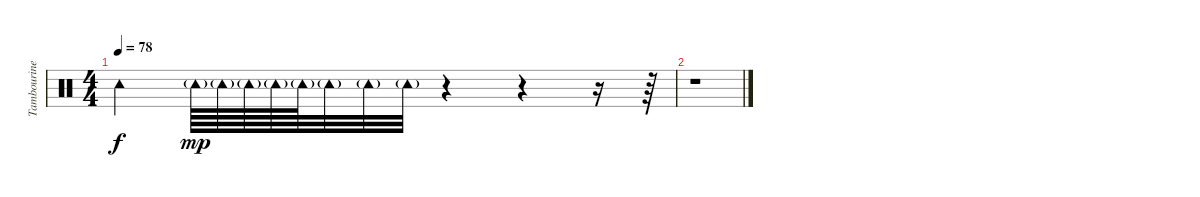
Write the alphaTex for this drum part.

\track ("Tambourine" "Tambourine") {instrument percussion}
\staff {score}
\articulation defaults
\ts (4 4)
\tempo 78
\clef neutral
\ks c "Tambourine (hit)".4{dy f} "Tambourine (hit)"{g}.64{dy mp} "Tambourine (hit)"{g}.64 "Tambourine (hit)"{g}.64 "Tambourine (hit)"{g}.64 "Tambourine (hit)"{g}.64 "Tambourine (hit)"{g}.32 "Tambourine (hit)"{g}.32 "Tambourine (hit)"{g}.32
r.4 r.4 r.16 r.64 |
r.1
